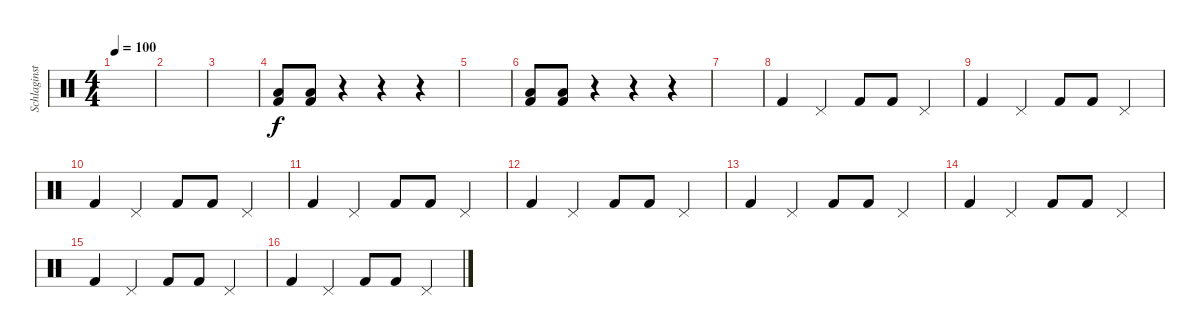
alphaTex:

\track ("Schlaginstrumente - Auswahl" "Schlaginst") {instrument percussion}
\staff {score}
\articulation defaults
\ts (4 4)
\tempo 100
\clef neutral
\ks c
|
|
|
("Kick (hit) 2" "Low Floor Tom (hit)").8 ("Kick (hit) 2" "Low Floor Tom (hit)").8 r.4 r.4 r.4 |
|
("Kick (hit) 2" "Low Floor Tom (hit)").8 ("Kick (hit) 2" "Low Floor Tom (hit)").8 r.4 r.4 r.4 |
|
"Kick (hit) 2".4 "Pedal Hi-Hat (hit)".4 "Kick (hit) 2".8 "Kick (hit) 2".8 "Pedal Hi-Hat (hit)".4 |
"Kick (hit) 2".4 "Pedal Hi-Hat (hit)".4 "Kick (hit) 2".8 "Kick (hit) 2".8 "Pedal Hi-Hat (hit)".4 |
"Kick (hit) 2".4 "Pedal Hi-Hat (hit)".4 "Kick (hit) 2".8 "Kick (hit) 2".8 "Pedal Hi-Hat (hit)".4 |
"Kick (hit) 2".4 "Pedal Hi-Hat (hit)".4 "Kick (hit) 2".8 "Kick (hit) 2".8 "Pedal Hi-Hat (hit)".4 |
"Kick (hit) 2".4 "Pedal Hi-Hat (hit)".4 "Kick (hit) 2".8 "Kick (hit) 2".8 "Pedal Hi-Hat (hit)".4 |
"Kick (hit) 2".4 "Pedal Hi-Hat (hit)".4 "Kick (hit) 2".8 "Kick (hit) 2".8 "Pedal Hi-Hat (hit)".4 |
"Kick (hit) 2".4 "Pedal Hi-Hat (hit)".4 "Kick (hit) 2".8 "Kick (hit) 2".8 "Pedal Hi-Hat (hit)".4 |
"Kick (hit) 2".4 "Pedal Hi-Hat (hit)".4 "Kick (hit) 2".8 "Kick (hit) 2".8 "Pedal Hi-Hat (hit)".4 |
"Kick (hit) 2".4 "Pedal Hi-Hat (hit)".4 "Kick (hit) 2".8 "Kick (hit) 2".8 "Pedal Hi-Hat (hit)".4
